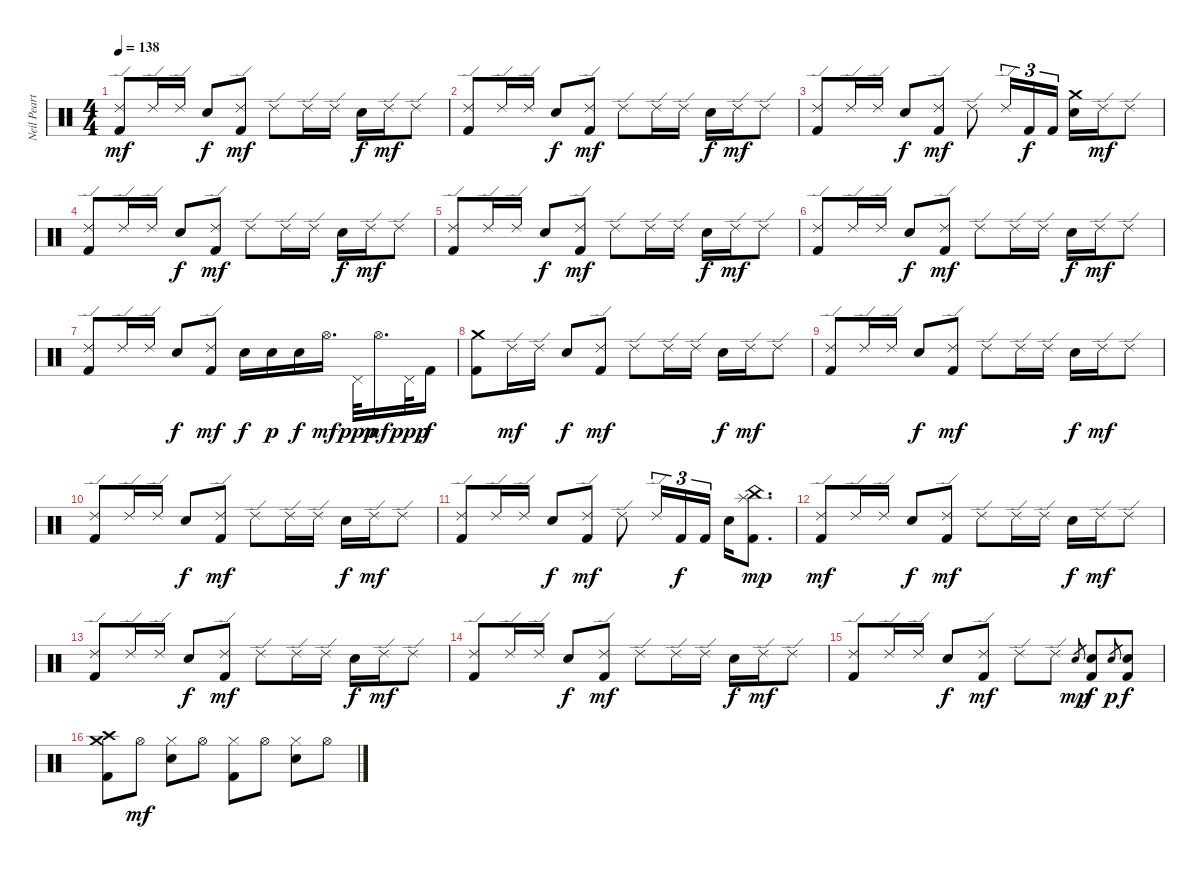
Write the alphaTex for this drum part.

\track ("Neil Peart, Percusión" "Neil Peart") {instrument percussion}
\staff {score}
\articulation defaults
\ts (4 4)
\tempo 138
\clef neutral
\ks c
("Ride (edge) 2" "Kick (hit) 2").8{dy mf} "Ride (edge) 2".16 "Ride (edge) 2".16 "Electric Snare (hit)".8{dy f} ("Ride (edge) 2" "Kick (hit) 2").8{dy mf} "Ride (edge) 2".8 "Ride (edge) 2".16 "Ride (edge) 2".16 "Electric Snare (hit)".16{dy f} "Ride (edge) 2".16{dy mf} "Ride (edge) 2".8 |
("Ride (edge) 2" "Kick (hit) 2").8 "Ride (edge) 2".16 "Ride (edge) 2".16 "Electric Snare (hit)".8{dy f} ("Ride (edge) 2" "Kick (hit) 2").8{dy mf} "Ride (edge) 2".8 "Ride (edge) 2".16 "Ride (edge) 2".16 "Electric Snare (hit)".16{dy f} "Ride (edge) 2".16{dy mf} "Ride (edge) 2".8 |
("Ride (edge) 2" "Kick (hit) 2").8 "Ride (edge) 2".16 "Ride (edge) 2".16 "Electric Snare (hit)".8{dy f} ("Ride (edge) 2" "Kick (hit) 2").8{dy mf} "Ride (edge) 2".8 "Ride (edge) 2".16{tu (3 2)} "Kick (hit) 2".16{tu (3 2) dy f} "Kick (hit) 2".16{tu (3 2)} ("Crash medium (hit)" "Electric Snare (hit)").16 "Ride (edge) 2".16{dy mf} "Ride (edge) 2".8 |
("Ride (edge) 2" "Kick (hit) 2").8 "Ride (edge) 2".16 "Ride (edge) 2".16 "Electric Snare (hit)".8{dy f} ("Ride (edge) 2" "Kick (hit) 2").8{dy mf} "Ride (edge) 2".8 "Ride (edge) 2".16 "Ride (edge) 2".16 "Electric Snare (hit)".16{dy f} "Ride (edge) 2".16{dy mf} "Ride (edge) 2".8 |
("Ride (edge) 2" "Kick (hit) 2").8 "Ride (edge) 2".16 "Ride (edge) 2".16 "Electric Snare (hit)".8{dy f} ("Ride (edge) 2" "Kick (hit) 2").8{dy mf} "Ride (edge) 2".8 "Ride (edge) 2".16 "Ride (edge) 2".16 "Electric Snare (hit)".16{dy f} "Ride (edge) 2".16{dy mf} "Ride (edge) 2".8 |
("Ride (edge) 2" "Kick (hit) 2").8 "Ride (edge) 2".16 "Ride (edge) 2".16 "Electric Snare (hit)".8{dy f} ("Ride (edge) 2" "Kick (hit) 2").8{dy mf} "Ride (edge) 2".8 "Ride (edge) 2".16 "Ride (edge) 2".16 "Electric Snare (hit)".16{dy f} "Ride (edge) 2".16{dy mf} "Ride (edge) 2".8 |
("Ride (edge) 2" "Kick (hit) 2").8 "Ride (edge) 2".16 "Ride (edge) 2".16 "Electric Snare (hit)".8{dy f} ("Ride (edge) 2" "Kick (hit) 2").8{dy mf} "Electric Snare (hit)".16{dy f} "Electric Snare (hit)".16{dy p} "Electric Snare (hit)".16{dy f} "Hi-Hat (open)".16{d dy mf} "Pedal Hi-Hat (hit)".32{dy ppp} "Hi-Hat (open)".16{d dy mf} "Pedal Hi-Hat (hit)".32{dy ppp} "Kick (hit) 2".16{dy f} |
("Crash medium (hit)" "Kick (hit) 2").8 "Ride (edge) 2".16{dy mf} "Ride (edge) 2".16 "Electric Snare (hit)".8{dy f} ("Ride (edge) 2" "Kick (hit) 2").8{dy mf} "Ride (edge) 2".8 "Ride (edge) 2".16 "Ride (edge) 2".16 "Electric Snare (hit)".16{dy f} "Ride (edge) 2".16{dy mf} "Ride (edge) 2".8 |
("Ride (edge) 2" "Kick (hit) 2").8 "Ride (edge) 2".16 "Ride (edge) 2".16 "Electric Snare (hit)".8{dy f} ("Ride (edge) 2" "Kick (hit) 2").8{dy mf} "Ride (edge) 2".8 "Ride (edge) 2".16 "Ride (edge) 2".16 "Electric Snare (hit)".16{dy f} "Ride (edge) 2".16{dy mf} "Ride (edge) 2".8 |
("Ride (edge) 2" "Kick (hit) 2").8 "Ride (edge) 2".16 "Ride (edge) 2".16 "Electric Snare (hit)".8{dy f} ("Ride (edge) 2" "Kick (hit) 2").8{dy mf} "Ride (edge) 2".8 "Ride (edge) 2".16 "Ride (edge) 2".16 "Electric Snare (hit)".16{dy f} "Ride (edge) 2".16{dy mf} "Ride (edge) 2".8 |
("Ride (edge) 2" "Kick (hit) 2").8 "Ride (edge) 2".16 "Ride (edge) 2".16 "Electric Snare (hit)".8{dy f} ("Ride (edge) 2" "Kick (hit) 2").8{dy mf} "Ride (edge) 2".8 "Ride (edge) 2".16{tu (3 2)} "Kick (hit) 2".16{tu (3 2) dy f} "Kick (hit) 2".16{tu (3 2)} "Electric Snare (hit)".16 ("China (hit)" "Splash (hit)" "Kick (hit) 2").8{d dy mp} |
("Ride (edge) 2" "Kick (hit) 2").8{dy mf} "Ride (edge) 2".16 "Ride (edge) 2".16 "Electric Snare (hit)".8{dy f} ("Ride (edge) 2" "Kick (hit) 2").8{dy mf} "Ride (edge) 2".8 "Ride (edge) 2".16 "Ride (edge) 2".16 "Electric Snare (hit)".16{dy f} "Ride (edge) 2".16{dy mf} "Ride (edge) 2".8 |
("Ride (edge) 2" "Kick (hit) 2").8 "Ride (edge) 2".16 "Ride (edge) 2".16 "Electric Snare (hit)".8{dy f} ("Ride (edge) 2" "Kick (hit) 2").8{dy mf} "Ride (edge) 2".8 "Ride (edge) 2".16 "Ride (edge) 2".16 "Electric Snare (hit)".16{dy f} "Ride (edge) 2".16{dy mf} "Ride (edge) 2".8 |
("Ride (edge) 2" "Kick (hit) 2").8 "Ride (edge) 2".16 "Ride (edge) 2".16 "Electric Snare (hit)".8{dy f} ("Ride (edge) 2" "Kick (hit) 2").8{dy mf} "Ride (edge) 2".8 "Ride (edge) 2".16 "Ride (edge) 2".16 "Electric Snare (hit)".16{dy f} "Ride (edge) 2".16{dy mf} "Ride (edge) 2".8 |
("Ride (edge) 2" "Kick (hit) 2").8 "Ride (edge) 2".16 "Ride (edge) 2".16 "Electric Snare (hit)".8{dy f} ("Ride (edge) 2" "Kick (hit) 2").8{dy mf} "Ride (edge) 2".8 "Ride (edge) 2".8 "Electric Snare (hit)".8{gr dy mp} ("Electric Snare (hit)" "Kick (hit) 2").8{dy f} "Electric Snare (hit)".8{gr dy p} ("Electric Snare (hit)" "Kick (hit) 2").8{dy f} |
("Crash medium (hit)" "Crash high (hit)" "Kick (hit) 2").8 "Hi-Hat (open)".8{dy mf} ("Hi-Hat (closed)" "Electric Snare (hit)").8 "Hi-Hat (open)".8 ("Hi-Hat (closed)" "Kick (hit) 2").8 "Hi-Hat (open)".8 ("Hi-Hat (closed)" "Electric Snare (hit)").8 "Hi-Hat (open)".8
